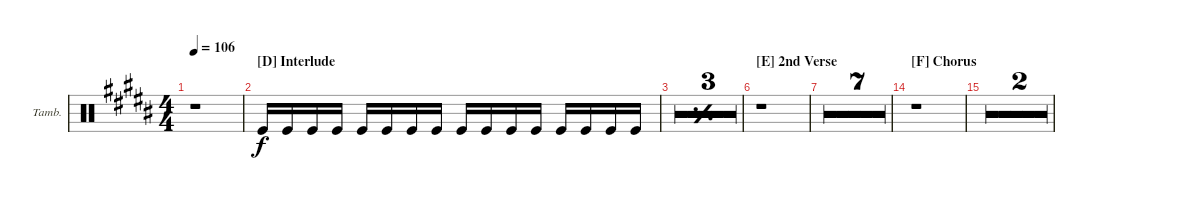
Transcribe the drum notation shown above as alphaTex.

\defaultSystemsLayout 4
\bracketExtendMode groupsimilarinstruments
\firstSystemTrackNameOrientation horizontal
\otherSystemsTrackNameOrientation horizontal
\track ("Tambourine" "Tamb.") {multiBarRest instrument percussion}
\staff {score}
\articulation defaults
\ts (4 4)
\tempo 106
\clef neutral
\ks b
r.1{dy f} |
\section ("D" "Interlude")
"Kick (hit)".16 "Kick (hit)".16 "Kick (hit)".16 "Kick (hit)".16 "Kick (hit)".16 "Kick (hit)".16 "Kick (hit)".16 "Kick (hit)".16 "Kick (hit)".16 "Kick (hit)".16 "Kick (hit)".16 "Kick (hit)".16 "Kick (hit)".16 "Kick (hit)".16 "Kick (hit)".16 "Kick (hit)".16 |
\simile simple
|
|
|
\section ("E" "2nd Verse")
\simile none
r.1 |
r.1 |
r.1 |
r.1 |
r.1 |
r.1 |
r.1 |
r.1 |
\section ("F" "Chorus")
r.1 |
r.1 |
r.1
